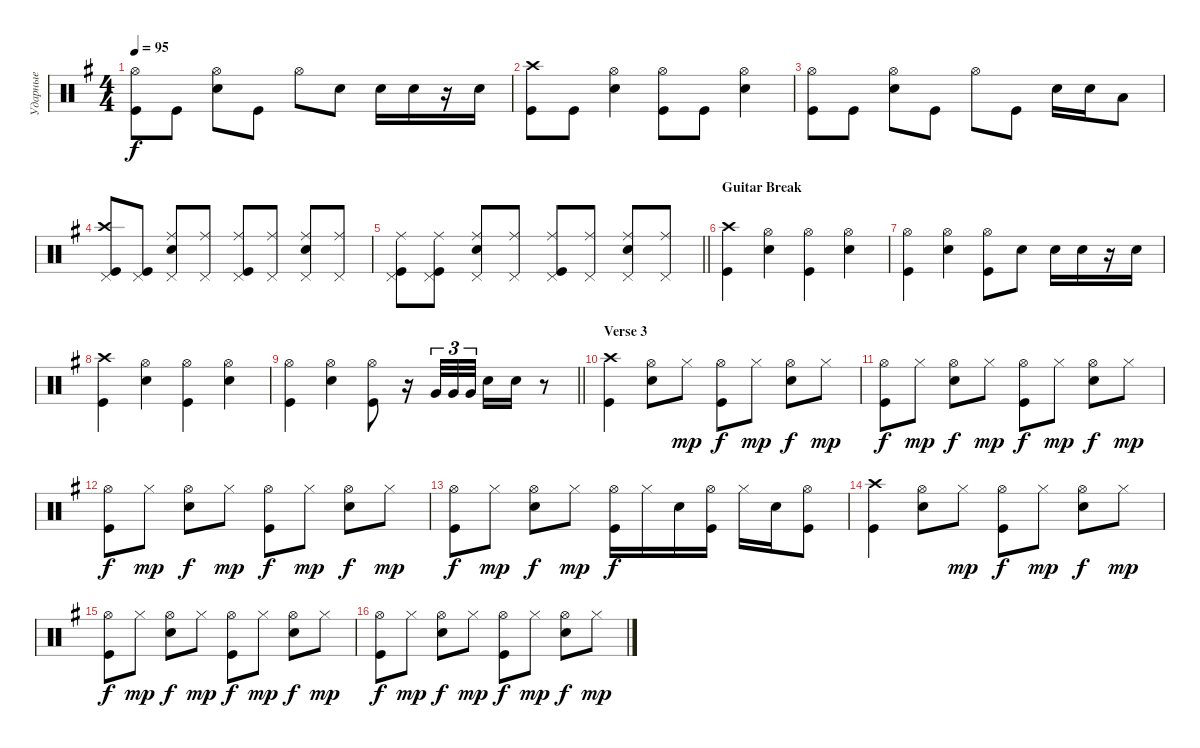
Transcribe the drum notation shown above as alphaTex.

\track ("Ударные" "Ударные") {instrument percussion}
\staff {score}
\articulation defaults
\ts (4 4)
\tempo 95
\clef neutral
\ks eminor
("Kick (hit)" "Hi-Hat (open)").8{dy f} "Kick (hit)".8 ("Snare (hit) 2" "Hi-Hat (open)").8 "Kick (hit)".8 "Hi-Hat (open)".8 "Snare (hit) 2".8 "Snare (hit) 2".16 "Snare (hit) 2".16 r.16 "Snare (hit) 2".16 |
("Kick (hit)" "Crash high (hit)").8 "Kick (hit)".8 ("Snare (hit) 2" "Hi-Hat (open)").4 ("Kick (hit)" "Hi-Hat (open)").8 "Kick (hit)".8 ("Snare (hit) 2" "Hi-Hat (open)").4 |
("Kick (hit)" "Hi-Hat (open)").8 "Kick (hit)".8 ("Snare (hit) 2" "Hi-Hat (open)").8 "Kick (hit)".8 "Hi-Hat (open)".8 "Kick (hit)".8 "Snare (hit) 2".16 "Snare (hit) 2".16 "Low Tom (hit)".8 |
("Pedal Hi-Hat (hit)" "Crash high (hit)" "Kick (hit)").8 ("Pedal Hi-Hat (hit)" "Kick (hit)").8 ("Pedal Hi-Hat (hit)" "Snare (hit) 2" "Ride (middle)").8 ("Pedal Hi-Hat (hit)" "Ride (middle)").8 ("Pedal Hi-Hat (hit)" "Kick (hit)" "Ride (middle)").8 ("Pedal Hi-Hat (hit)" "Ride (middle)").8 ("Pedal Hi-Hat (hit)" "Snare (hit) 2" "Ride (middle)").8 ("Pedal Hi-Hat (hit)" "Ride (middle)").8 |
\barLineRight lightlight
("Pedal Hi-Hat (hit)" "Ride (middle)" "Kick (hit)").8 ("Pedal Hi-Hat (hit)" "Kick (hit)" "Ride (middle)").8 ("Pedal Hi-Hat (hit)" "Snare (hit) 2" "Ride (middle)").8 ("Pedal Hi-Hat (hit)" "Ride (middle)").8 ("Pedal Hi-Hat (hit)" "Kick (hit)" "Ride (middle)").8 ("Pedal Hi-Hat (hit)" "Ride (middle)").8 ("Pedal Hi-Hat (hit)" "Snare (hit) 2" "Ride (middle)").8 ("Pedal Hi-Hat (hit)" "Ride (middle)").8 |
\section ("" "Guitar Break")
("Kick (hit)" "Crash high (hit)").4 ("Snare (hit) 2" "Hi-Hat (open)").4 ("Kick (hit)" "Hi-Hat (open)").4 ("Snare (hit) 2" "Hi-Hat (open)").4 |
("Kick (hit)" "Hi-Hat (open)").4 ("Snare (hit) 2" "Hi-Hat (open)").4 ("Kick (hit)" "Hi-Hat (open)").8 "Snare (hit) 2".8 "Snare (hit) 2".16 "Snare (hit) 2".16 r.16 "Snare (hit) 2".16 |
("Kick (hit)" "Crash high (hit)").4 ("Snare (hit) 2" "Hi-Hat (open)").4 ("Kick (hit)" "Hi-Hat (open)").4 ("Snare (hit) 2" "Hi-Hat (open)").4 |
\barLineRight lightlight
("Kick (hit)" "Hi-Hat (open)").4 ("Snare (hit) 2" "Hi-Hat (open)").4 ("Kick (hit)" "Hi-Hat (open)").8 r.16 "Very Low Tom (hit)".32{tu (3 2)} "Very Low Tom (hit)".32{tu (3 2)} "Very Low Tom (hit)".32{tu (3 2)} "Snare (hit) 2".16 "Snare (hit) 2".16 r.8 |
\section ("" "Verse 3")
("Kick (hit)" "Crash high (hit)").4 ("Snare (hit) 2" "Hi-Hat (open)").8 "Hi-Hat (closed)".8{dy mp} ("Kick (hit)" "Hi-Hat (open)").8{dy f} "Hi-Hat (closed)".8{dy mp} ("Snare (hit) 2" "Hi-Hat (open)").8{dy f} "Hi-Hat (closed)".8{dy mp} |
("Kick (hit)" "Hi-Hat (open)").8{dy f} "Hi-Hat (closed)".8{dy mp} ("Snare (hit) 2" "Hi-Hat (open)").8{dy f} "Hi-Hat (closed)".8{dy mp} ("Kick (hit)" "Hi-Hat (open)").8{dy f} "Hi-Hat (closed)".8{dy mp} ("Snare (hit) 2" "Hi-Hat (open)").8{dy f} "Hi-Hat (closed)".8{dy mp} |
("Kick (hit)" "Hi-Hat (open)").8{dy f} "Hi-Hat (closed)".8{dy mp} ("Snare (hit) 2" "Hi-Hat (open)").8{dy f} "Hi-Hat (closed)".8{dy mp} ("Kick (hit)" "Hi-Hat (open)").8{dy f} "Hi-Hat (closed)".8{dy mp} ("Snare (hit) 2" "Hi-Hat (open)").8{dy f} "Hi-Hat (closed)".8{dy mp} |
("Kick (hit)" "Hi-Hat (open)").8{dy f} "Hi-Hat (closed)".8{dy mp} ("Snare (hit) 2" "Hi-Hat (open)").8{dy f} "Hi-Hat (closed)".8{dy mp} ("Kick (hit)" "Hi-Hat (open)").16{dy f} "Hi-Hat (closed)".16 "Snare (hit) 2".16 ("Kick (hit)" "Hi-Hat (open)").16 "Hi-Hat (closed)".16 "Snare (hit) 2".16 ("Kick (hit)" "Hi-Hat (open)").8 |
("Kick (hit)" "Crash high (hit)").4 ("Snare (hit) 2" "Hi-Hat (open)").8 "Hi-Hat (closed)".8{dy mp} ("Kick (hit)" "Hi-Hat (open)").8{dy f} "Hi-Hat (closed)".8{dy mp} ("Snare (hit) 2" "Hi-Hat (open)").8{dy f} "Hi-Hat (closed)".8{dy mp} |
("Kick (hit)" "Hi-Hat (open)").8{dy f} "Hi-Hat (closed)".8{dy mp} ("Snare (hit) 2" "Hi-Hat (open)").8{dy f} "Hi-Hat (closed)".8{dy mp} ("Kick (hit)" "Hi-Hat (open)").8{dy f} "Hi-Hat (closed)".8{dy mp} ("Snare (hit) 2" "Hi-Hat (open)").8{dy f} "Hi-Hat (closed)".8{dy mp} |
("Kick (hit)" "Hi-Hat (open)").8{dy f} "Hi-Hat (closed)".8{dy mp} ("Snare (hit) 2" "Hi-Hat (open)").8{dy f} "Hi-Hat (closed)".8{dy mp} ("Kick (hit)" "Hi-Hat (open)").8{dy f} "Hi-Hat (closed)".8{dy mp} ("Snare (hit) 2" "Hi-Hat (open)").8{dy f} "Hi-Hat (closed)".8{dy mp}
